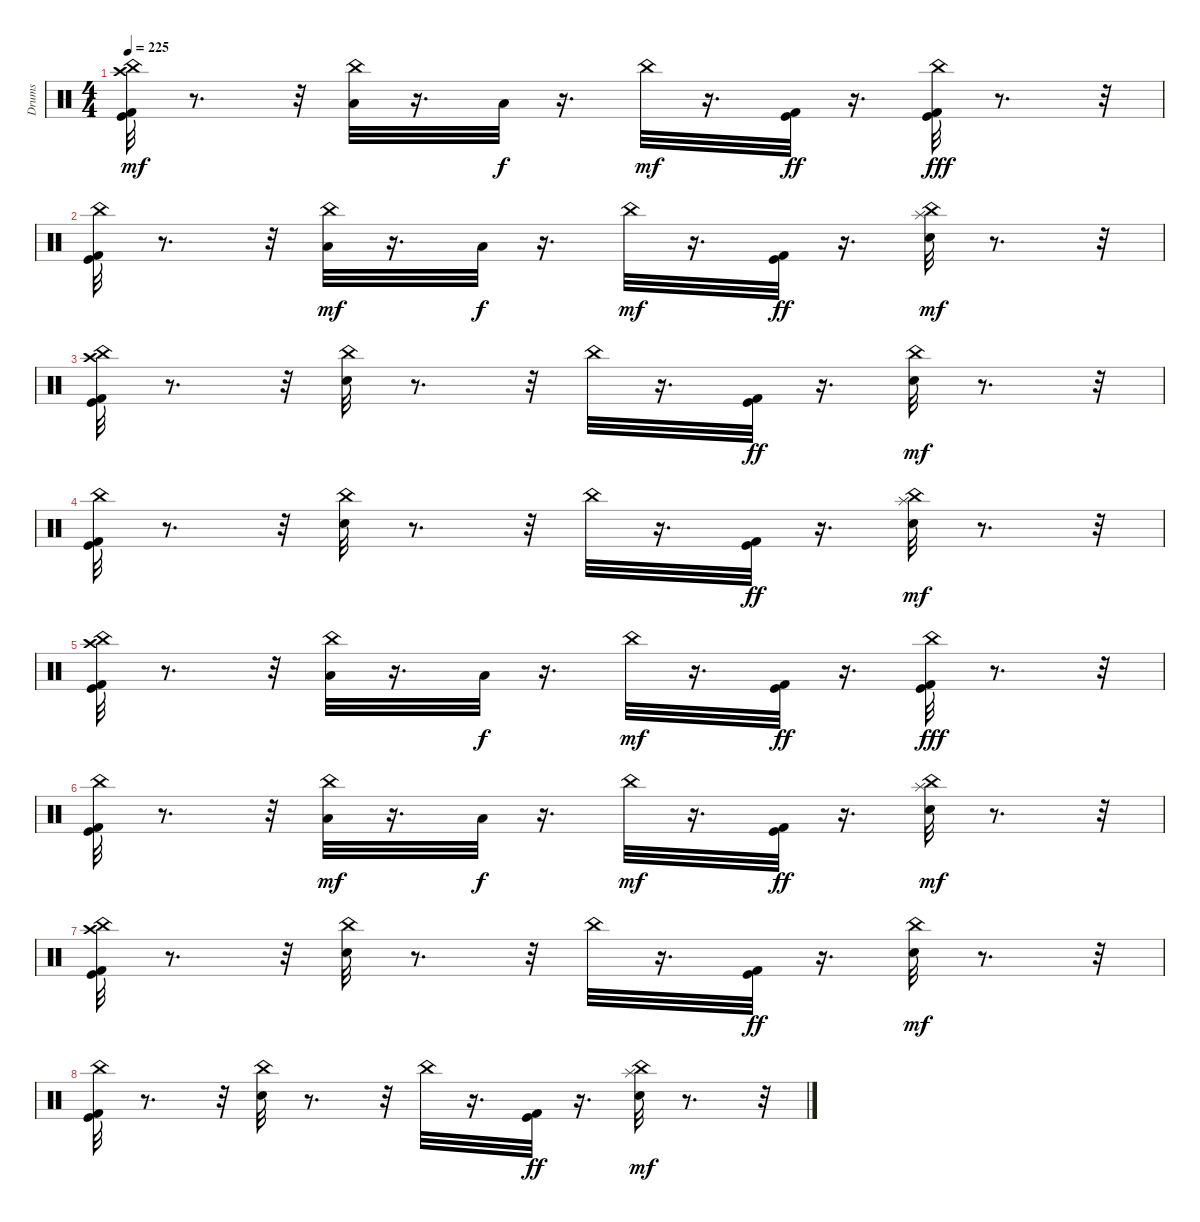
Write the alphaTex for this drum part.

\track ("Drums" "Drums") {instrument percussion}
\staff {score}
\articulation defaults
\ts (4 4)
\tempo 225
\clef neutral
\ks c
("Kick (hit) 2" "Kick (hit)" "China (hit)" "Crash high (hit)").32{dy mf} r.8{d} r.32 ("China (hit)" "Low Floor Tom (hit)").32 r.16{d} "Low Floor Tom (hit)".32{dy f} r.16{d} "China (hit)".32{dy mf} r.16{d} ("Kick (hit) 2" "Kick (hit)").32{dy ff} r.16{d} ("China (hit)" "Kick (hit) 2" "Kick (hit)").32{dy fff} r.8{d} r.32 |
("China (hit)" "Kick (hit) 2" "Kick (hit)").32 r.8{d} r.32 ("China (hit)" "Low Floor Tom (hit)").32{dy mf} r.16{d} "Low Floor Tom (hit)".32{dy f} r.16{d} "China (hit)".32{dy mf} r.16{d} ("Kick (hit) 2" "Kick (hit)").32{dy ff} r.16{d} ("China (hit)" "Snare (hit) 2" "Splash (hit)").32{dy mf} r.8{d} r.32 |
("Kick (hit) 2" "Kick (hit)" "China (hit)" "Crash high (hit)").32 r.8{d} r.32 ("Snare (hit) 2" "China (hit)").32 r.8{d} r.32 "China (hit)".32 r.16{d} ("Kick (hit) 2" "Kick (hit)").32{dy ff} r.16{d} ("Snare (hit) 2" "China (hit)").32{dy mf} r.8{d} r.32 |
("Kick (hit) 2" "Kick (hit)" "China (hit)").32 r.8{d} r.32 ("Snare (hit) 2" "China (hit)").32 r.8{d} r.32 "China (hit)".32 r.16{d} ("Kick (hit) 2" "Kick (hit)").32{dy ff} r.16{d} ("Snare (hit) 2" "China (hit)" "Splash (hit)").32{dy mf} r.8{d} r.32 |
("Kick (hit) 2" "Kick (hit)" "China (hit)" "Crash high (hit)").32 r.8{d} r.32 ("China (hit)" "Low Floor Tom (hit)").32 r.16{d} "Low Floor Tom (hit)".32{dy f} r.16{d} "China (hit)".32{dy mf} r.16{d} ("Kick (hit) 2" "Kick (hit)").32{dy ff} r.16{d} ("China (hit)" "Kick (hit) 2" "Kick (hit)").32{dy fff} r.8{d} r.32 |
("China (hit)" "Kick (hit) 2" "Kick (hit)").32 r.8{d} r.32 ("China (hit)" "Low Floor Tom (hit)").32{dy mf} r.16{d} "Low Floor Tom (hit)".32{dy f} r.16{d} "China (hit)".32{dy mf} r.16{d} ("Kick (hit) 2" "Kick (hit)").32{dy ff} r.16{d} ("China (hit)" "Snare (hit) 2" "Splash (hit)").32{dy mf} r.8{d} r.32 |
("Kick (hit) 2" "Kick (hit)" "China (hit)" "Crash high (hit)").32 r.8{d} r.32 ("Snare (hit) 2" "China (hit)").32 r.8{d} r.32 "China (hit)".32 r.16{d} ("Kick (hit) 2" "Kick (hit)").32{dy ff} r.16{d} ("Snare (hit) 2" "China (hit)").32{dy mf} r.8{d} r.32 |
("Kick (hit) 2" "Kick (hit)" "China (hit)").32 r.8{d} r.32 ("Snare (hit) 2" "China (hit)").32 r.8{d} r.32 "China (hit)".32 r.16{d} ("Kick (hit) 2" "Kick (hit)").32{dy ff} r.16{d} ("Snare (hit) 2" "China (hit)" "Splash (hit)").32{dy mf} r.8{d} r.32
